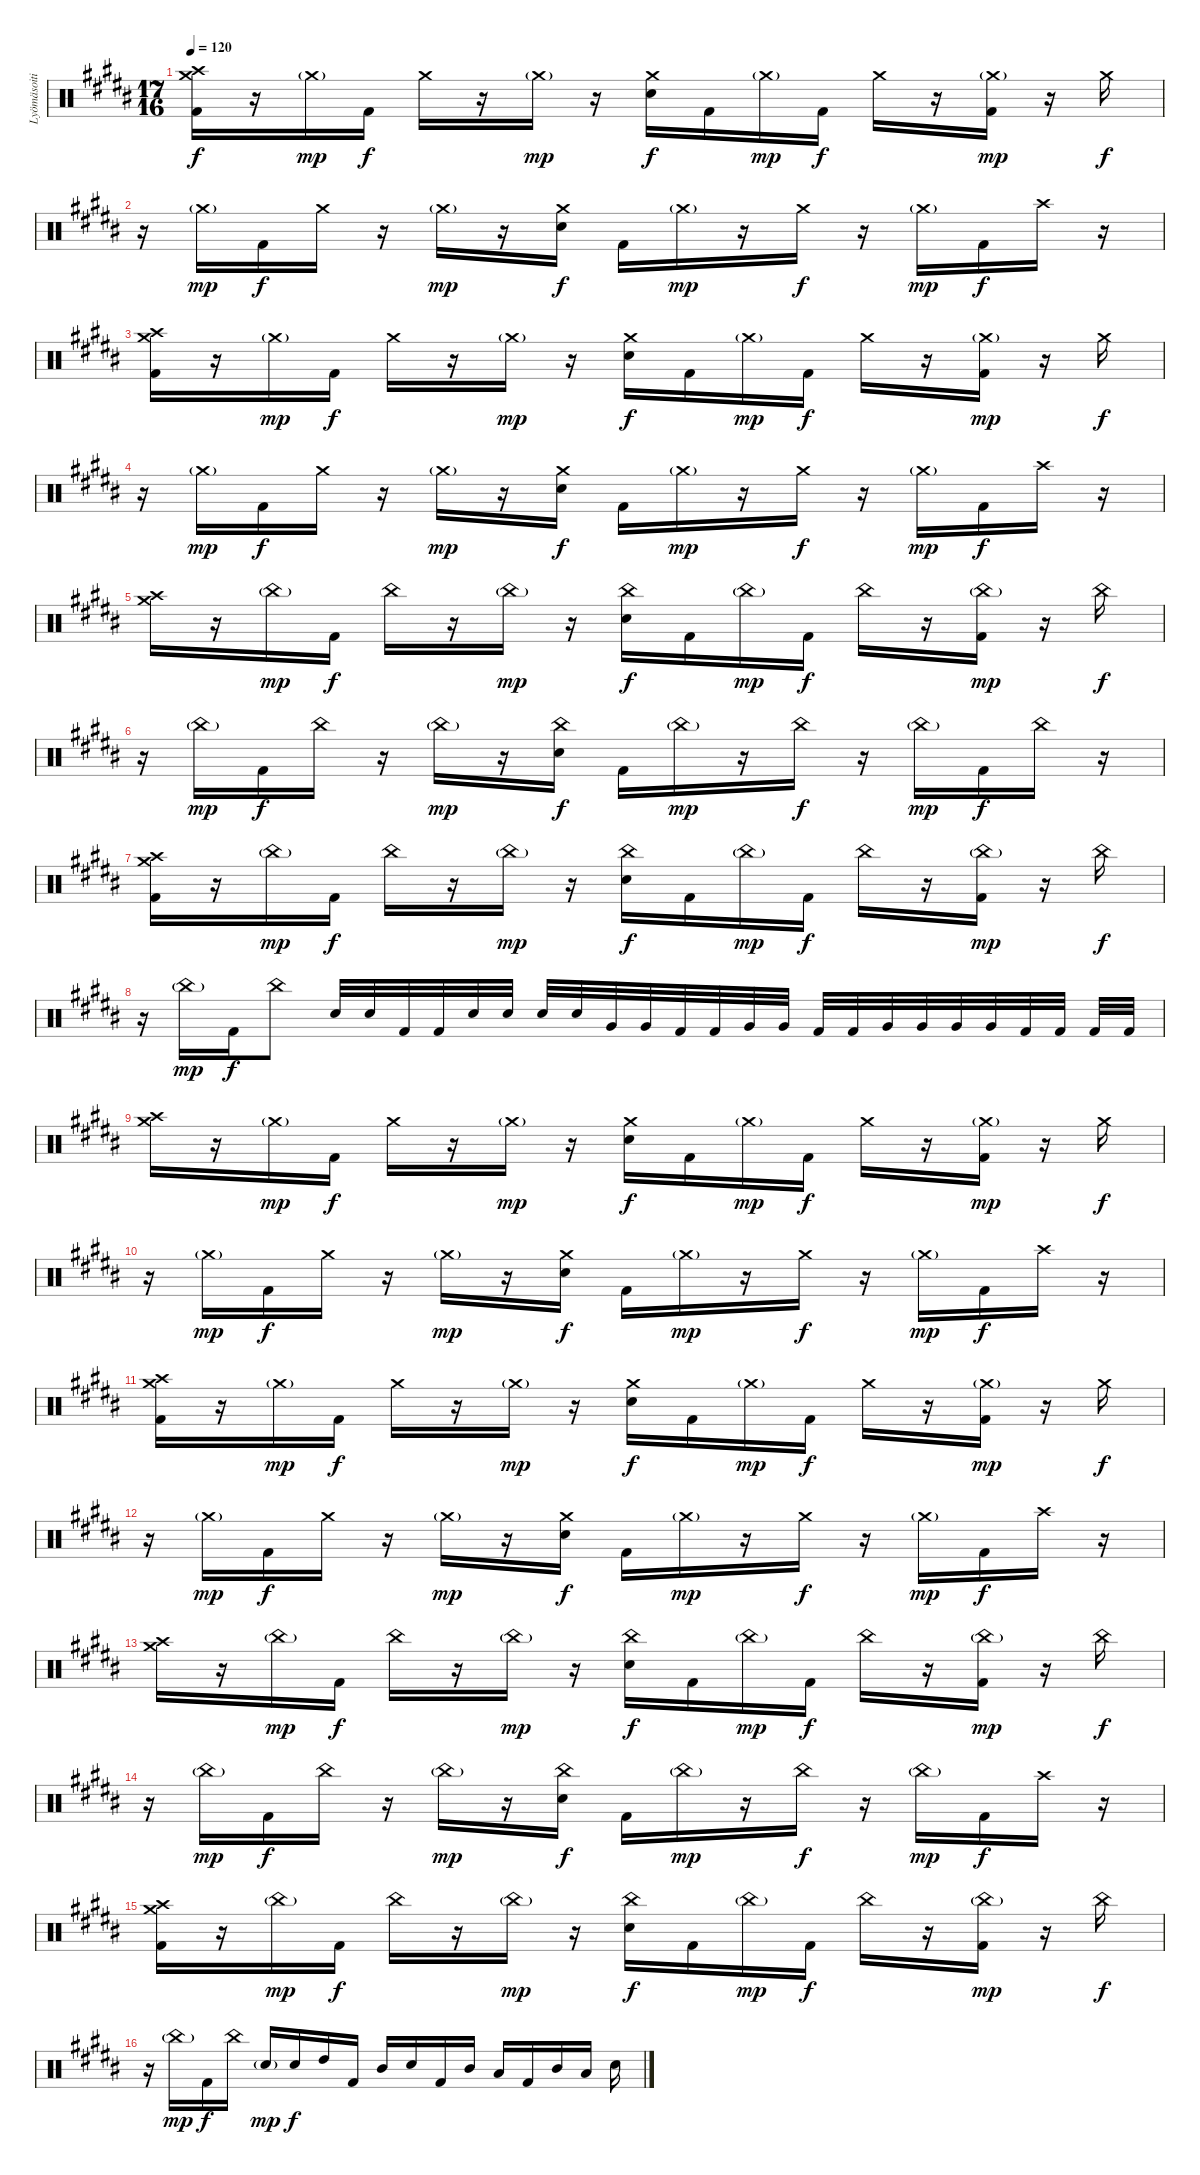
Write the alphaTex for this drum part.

\track ("Lyömäsoitin" "Lyömäsoiti") {instrument percussion}
\staff {score}
\articulation defaults
\ts (17 16)
\tempo 120
\clef neutral
\ks g#minor
("Crash medium (hit)" "Crash high (hit)" "Kick (hit) 2").16{dy f} r.16 "Crash medium (hit)"{g}.16{dy mp} "Kick (hit) 2".16{dy f} "Crash medium (hit)".16 r.16 "Crash medium (hit)"{g}.16{dy mp} r.16 ("Crash medium (hit)" "Electric Snare (hit)").16{dy f} "Kick (hit) 2".16 "Crash medium (hit)"{g}.16{dy mp} "Kick (hit) 2".16{dy f} "Crash medium (hit)".16 r.16 ("Crash medium (hit)"{g} "Kick (hit) 2").16{dy mp} r.16 "Crash medium (hit)".16{dy f} |
r.16 "Crash medium (hit)"{g}.16{dy mp} "Kick (hit) 2".16{dy f} "Crash medium (hit)".16 r.16 "Crash medium (hit)"{g}.16{dy mp} r.16 ("Crash medium (hit)" "Electric Snare (hit)").16{dy f} "Kick (hit) 2".16 "Crash medium (hit)"{g}.16{dy mp} r.16 "Crash medium (hit)".16{dy f} r.16 "Crash medium (hit)"{g}.16{dy mp} "Kick (hit) 2".16{dy f} "Crash high (hit)".16 r.16 |
("Crash medium (hit)" "Crash high (hit)" "Kick (hit) 2").16 r.16 "Crash medium (hit)"{g}.16{dy mp} "Kick (hit) 2".16{dy f} "Crash medium (hit)".16 r.16 "Crash medium (hit)"{g}.16{dy mp} r.16 ("Crash medium (hit)" "Electric Snare (hit)").16{dy f} "Kick (hit) 2".16 "Crash medium (hit)"{g}.16{dy mp} "Kick (hit) 2".16{dy f} "Crash medium (hit)".16 r.16 ("Crash medium (hit)"{g} "Kick (hit) 2").16{dy mp} r.16 "Crash medium (hit)".16{dy f} |
r.16 "Crash medium (hit)"{g}.16{dy mp} "Kick (hit) 2".16{dy f} "Crash medium (hit)".16 r.16 "Crash medium (hit)"{g}.16{dy mp} r.16 ("Crash medium (hit)" "Electric Snare (hit)").16{dy f} "Kick (hit) 2".16 "Crash medium (hit)"{g}.16{dy mp} r.16 "Crash medium (hit)".16{dy f} r.16 "Crash medium (hit)"{g}.16{dy mp} "Kick (hit) 2".16{dy f} "Crash high (hit)".16 r.16 |
("Crash medium (hit)" "Crash high (hit)").16 r.16 "China (hit)"{g}.16{dy mp} "Kick (hit) 2".16{dy f} "China (hit)".16 r.16 "China (hit)"{g}.16{dy mp} r.16 ("China (hit)" "Electric Snare (hit)").16{dy f} "Kick (hit) 2".16 "China (hit)"{g}.16{dy mp} "Kick (hit) 2".16{dy f} "China (hit)".16 r.16 ("China (hit)"{g} "Kick (hit) 2").16{dy mp} r.16 "China (hit)".16{dy f} |
r.16 "China (hit)"{g}.16{dy mp} "Kick (hit) 2".16{dy f} "China (hit)".16 r.16 "China (hit)"{g}.16{dy mp} r.16 ("China (hit)" "Electric Snare (hit)").16{dy f} "Kick (hit) 2".16 "China (hit)"{g}.16{dy mp} r.16 "China (hit)".16{dy f} r.16 "China (hit)"{g}.16{dy mp} "Kick (hit) 2".16{dy f} "China (hit)".16 r.16 |
("Crash medium (hit)" "Crash high (hit)" "Kick (hit) 2").16 r.16 "China (hit)"{g}.16{dy mp} "Kick (hit) 2".16{dy f} "China (hit)".16 r.16 "China (hit)"{g}.16{dy mp} r.16 ("China (hit)" "Electric Snare (hit)").16{dy f} "Kick (hit) 2".16 "China (hit)"{g}.16{dy mp} "Kick (hit) 2".16{dy f} "China (hit)".16 r.16 ("China (hit)"{g} "Kick (hit) 2").16{dy mp} r.16 "China (hit)".16{dy f} |
r.16 "China (hit)"{g}.16{dy mp} "Kick (hit) 2".16{dy f} "China (hit)".8 "Electric Snare (hit)".32 "Electric Snare (hit)".32 "Kick (hit) 2".32 "Kick (hit) 2".32 "Electric Snare (hit)".32 "Electric Snare (hit)".32 "Electric Snare (hit)".32 "Electric Snare (hit)".32 "Very Low Tom (hit)".32 "Very Low Tom (hit)".32 "Kick (hit) 2".32 "Kick (hit) 2".32 "Very Low Tom (hit)".32 "Very Low Tom (hit)".32 "Kick (hit) 2".32 "Kick (hit) 2".32 "Very Low Tom (hit)".32 "Very Low Tom (hit)".32 "Very Low Tom (hit)".32 "Very Low Tom (hit)".32 "Kick (hit) 2".32 "Kick (hit) 2".32 "Kick (hit) 2".32 "Kick (hit) 2".32 |
("Crash medium (hit)" "Crash high (hit)").16 r.16 "Crash medium (hit)"{g}.16{dy mp} "Kick (hit) 2".16{dy f} "Crash medium (hit)".16 r.16 "Crash medium (hit)"{g}.16{dy mp} r.16 ("Crash medium (hit)" "Electric Snare (hit)").16{dy f} "Kick (hit) 2".16 "Crash medium (hit)"{g}.16{dy mp} "Kick (hit) 2".16{dy f} "Crash medium (hit)".16 r.16 ("Crash medium (hit)"{g} "Kick (hit) 2").16{dy mp} r.16 "Crash medium (hit)".16{dy f} |
r.16 "Crash medium (hit)"{g}.16{dy mp} "Kick (hit) 2".16{dy f} "Crash medium (hit)".16 r.16 "Crash medium (hit)"{g}.16{dy mp} r.16 ("Crash medium (hit)" "Electric Snare (hit)").16{dy f} "Kick (hit) 2".16 "Crash medium (hit)"{g}.16{dy mp} r.16 "Crash medium (hit)".16{dy f} r.16 "Crash medium (hit)"{g}.16{dy mp} "Kick (hit) 2".16{dy f} "Crash high (hit)".16 r.16 |
("Crash medium (hit)" "Crash high (hit)" "Kick (hit) 2").16 r.16 "Crash medium (hit)"{g}.16{dy mp} "Kick (hit) 2".16{dy f} "Crash medium (hit)".16 r.16 "Crash medium (hit)"{g}.16{dy mp} r.16 ("Crash medium (hit)" "Electric Snare (hit)").16{dy f} "Kick (hit) 2".16 "Crash medium (hit)"{g}.16{dy mp} "Kick (hit) 2".16{dy f} "Crash medium (hit)".16 r.16 ("Crash medium (hit)"{g} "Kick (hit) 2").16{dy mp} r.16 "Crash medium (hit)".16{dy f} |
r.16 "Crash medium (hit)"{g}.16{dy mp} "Kick (hit) 2".16{dy f} "Crash medium (hit)".16 r.16 "Crash medium (hit)"{g}.16{dy mp} r.16 ("Crash medium (hit)" "Electric Snare (hit)").16{dy f} "Kick (hit) 2".16 "Crash medium (hit)"{g}.16{dy mp} r.16 "Crash medium (hit)".16{dy f} r.16 "Crash medium (hit)"{g}.16{dy mp} "Kick (hit) 2".16{dy f} "Crash high (hit)".16 r.16 |
("Crash medium (hit)" "Crash high (hit)").16 r.16 "China (hit)"{g}.16{dy mp} "Kick (hit) 2".16{dy f} "China (hit)".16 r.16 "China (hit)"{g}.16{dy mp} r.16 ("China (hit)" "Electric Snare (hit)").16{dy f} "Kick (hit) 2".16 "China (hit)"{g}.16{dy mp} "Kick (hit) 2".16{dy f} "China (hit)".16 r.16 ("China (hit)"{g} "Kick (hit) 2").16{dy mp} r.16 "China (hit)".16{dy f} |
r.16 "China (hit)"{g}.16{dy mp} "Kick (hit) 2".16{dy f} "China (hit)".16 r.16 "China (hit)"{g}.16{dy mp} r.16 ("China (hit)" "Electric Snare (hit)").16{dy f} "Kick (hit) 2".16 "China (hit)"{g}.16{dy mp} r.16 "China (hit)".16{dy f} r.16 "China (hit)"{g}.16{dy mp} "Kick (hit) 2".16{dy f} "Crash high (hit)".16 r.16 |
("Crash medium (hit)" "Crash high (hit)" "Kick (hit) 2").16 r.16 "China (hit)"{g}.16{dy mp} "Kick (hit) 2".16{dy f} "China (hit)".16 r.16 "China (hit)"{g}.16{dy mp} r.16 ("China (hit)" "Electric Snare (hit)").16{dy f} "Kick (hit) 2".16 "China (hit)"{g}.16{dy mp} "Kick (hit) 2".16{dy f} "China (hit)".16 r.16 ("China (hit)"{g} "Kick (hit) 2").16{dy mp} r.16 "China (hit)".16{dy f} |
r.16 "China (hit)"{g}.16{dy mp} "Kick (hit) 2".16{dy f} "China (hit)".16 "Electric Snare (hit)"{g}.16{dy mp} "Electric Snare (hit)".16{dy f} "High Tom (hit)".16 "Kick (hit) 2".16 "Mid Tom (hit)".16 "Electric Snare (hit)".16 "Kick (hit) 2".16 "Mid Tom (hit)".16 "Low Tom (hit)".16 "Kick (hit) 2".16 "Mid Tom (hit)".16 "Low Tom (hit)".16 "Electric Snare (hit)".16
